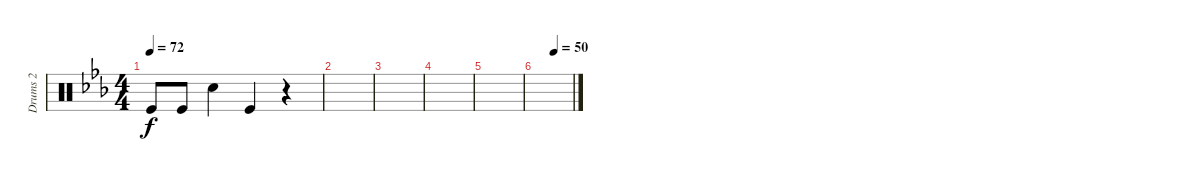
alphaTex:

\track ("Drums 2" "Drums 2") {instrument percussion}
\staff {score}
\articulation defaults
\ts (4 4)
\tempo 72
\clef neutral
\ks eb "Kick (hit)".8{dy f} "Kick (hit)".8 "Snare (hit) 2".4 "Kick (hit)".4
r.4 |
|
|
|
|
\tempo (50 0.5)
